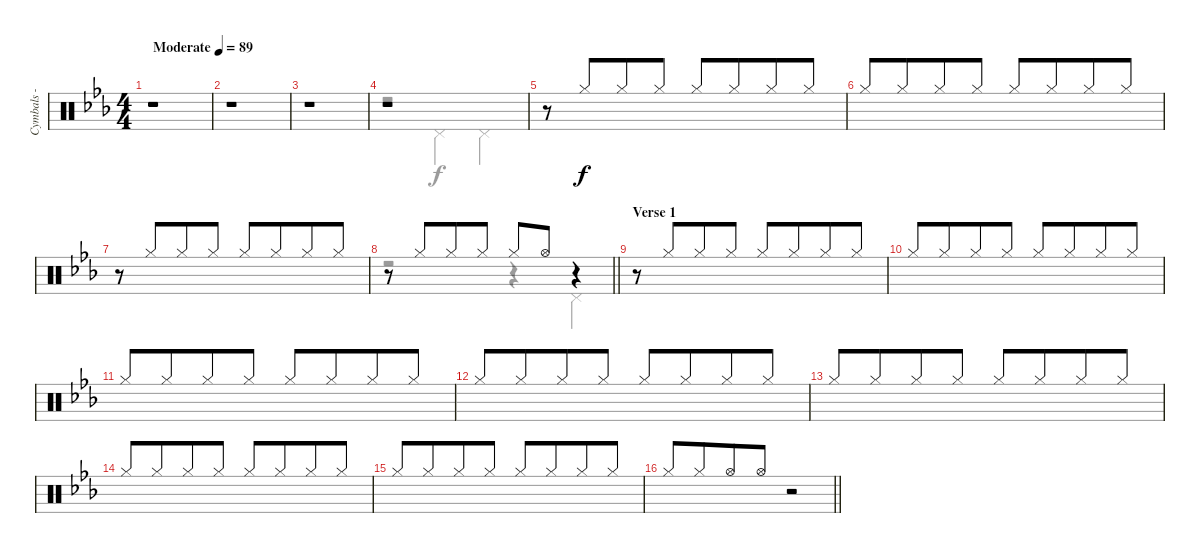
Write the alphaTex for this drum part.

\track ("Cymbals - hi-hat" "Cymbals - ") {instrument percussion}
\staff {score}
\articulation defaults
\voice
\ts (4 4)
\tempo (89 "Moderate")
\clef neutral
\ks eb
r.1{dy f} |
r.1 |
r.1 |
r.1 |
r.8{volume 8 balance 11} "Hi-Hat (closed)".8{beam Up beam merge} "Hi-Hat (closed)".8{beam Up} "Hi-Hat (closed)".8{beam Up} "Hi-Hat (closed)".8{beam Up} "Hi-Hat (closed)".8{beam Up beam merge} "Hi-Hat (closed)".8{beam Up} "Hi-Hat (closed)".8{beam Up} |
"Hi-Hat (closed)".8{beam Up} "Hi-Hat (closed)".8{beam Up beam merge} "Hi-Hat (closed)".8{beam Up} "Hi-Hat (closed)".8{beam Up} "Hi-Hat (closed)".8{beam Up} "Hi-Hat (closed)".8{beam Up beam merge} "Hi-Hat (closed)".8{beam Up} "Hi-Hat (closed)".8{beam Up} |
r.8 "Hi-Hat (closed)".8{beam Up beam merge} "Hi-Hat (closed)".8{beam Up} "Hi-Hat (closed)".8{beam Up} "Hi-Hat (closed)".8{beam Up} "Hi-Hat (closed)".8{beam Up beam merge} "Hi-Hat (closed)".8{beam Up} "Hi-Hat (closed)".8{beam Up} |
\barLineRight lightlight
r.8 "Hi-Hat (closed)".8{beam merge} "Hi-Hat (closed)".8 "Hi-Hat (closed)".8 "Hi-Hat (closed)".8 "Hi-Hat (open)".8 r.4 |
\section ("" "Verse 1")
r.8 "Hi-Hat (closed)".8{beam Up beam merge} "Hi-Hat (closed)".8{beam Up} "Hi-Hat (closed)".8{beam Up} "Hi-Hat (closed)".8{beam Up} "Hi-Hat (closed)".8{beam Up beam merge} "Hi-Hat (closed)".8{beam Up} "Hi-Hat (closed)".8{beam Up} |
"Hi-Hat (closed)".8{beam Up} "Hi-Hat (closed)".8{beam Up beam merge} "Hi-Hat (closed)".8{beam Up} "Hi-Hat (closed)".8{beam Up} "Hi-Hat (closed)".8{beam Up} "Hi-Hat (closed)".8{beam Up beam merge} "Hi-Hat (closed)".8{beam Up} "Hi-Hat (closed)".8{beam Up} |
"Hi-Hat (closed)".8{beam Up} "Hi-Hat (closed)".8{beam Up beam merge} "Hi-Hat (closed)".8{beam Up} "Hi-Hat (closed)".8{beam Up} "Hi-Hat (closed)".8{beam Up} "Hi-Hat (closed)".8{beam Up beam merge} "Hi-Hat (closed)".8{beam Up} "Hi-Hat (closed)".8{beam Up} |
"Hi-Hat (closed)".8{beam Up} "Hi-Hat (closed)".8{beam Up beam merge} "Hi-Hat (closed)".8{beam Up} "Hi-Hat (closed)".8{beam Up} "Hi-Hat (closed)".8{beam Up} "Hi-Hat (closed)".8{beam Up beam merge} "Hi-Hat (closed)".8{beam Up} "Hi-Hat (closed)".8{beam Up} |
"Hi-Hat (closed)".8{beam Up} "Hi-Hat (closed)".8{beam Up beam merge} "Hi-Hat (closed)".8{beam Up} "Hi-Hat (closed)".8{beam Up} "Hi-Hat (closed)".8{beam Up} "Hi-Hat (closed)".8{beam Up beam merge} "Hi-Hat (closed)".8{beam Up} "Hi-Hat (closed)".8{beam Up} |
"Hi-Hat (closed)".8{beam Up} "Hi-Hat (closed)".8{beam Up beam merge} "Hi-Hat (closed)".8{beam Up} "Hi-Hat (closed)".8{beam Up} "Hi-Hat (closed)".8{beam Up} "Hi-Hat (closed)".8{beam Up beam merge} "Hi-Hat (closed)".8{beam Up} "Hi-Hat (closed)".8{beam Up} |
"Hi-Hat (closed)".8{beam Up} "Hi-Hat (closed)".8{beam Up beam merge} "Hi-Hat (closed)".8{beam Up} "Hi-Hat (closed)".8{beam Up} "Hi-Hat (closed)".8{beam Up} "Hi-Hat (closed)".8{beam Up beam merge} "Hi-Hat (closed)".8{beam Up} "Hi-Hat (closed)".8{beam Up} |
\barLineRight lightlight "Hi-Hat (closed)".8{beam Up} "Hi-Hat (closed)".8{beam Up beam merge} "Hi-Hat (open)".8{beam Up} "Hi-Hat (open)".8{beam Up}
r.2
\voice
\clef neutral
\ottava regular
\simile none
\ks eb
|
|
|
r.2 "Pedal Hi-Hat (hit)".4 "Pedal Hi-Hat (hit)".4 |
|
|
|
\barLineRight lightlight
r.2 r.4 "Pedal Hi-Hat (hit)".4{dy f} |
|
|
|
|
|
|
|
\barLineRight lightlight
